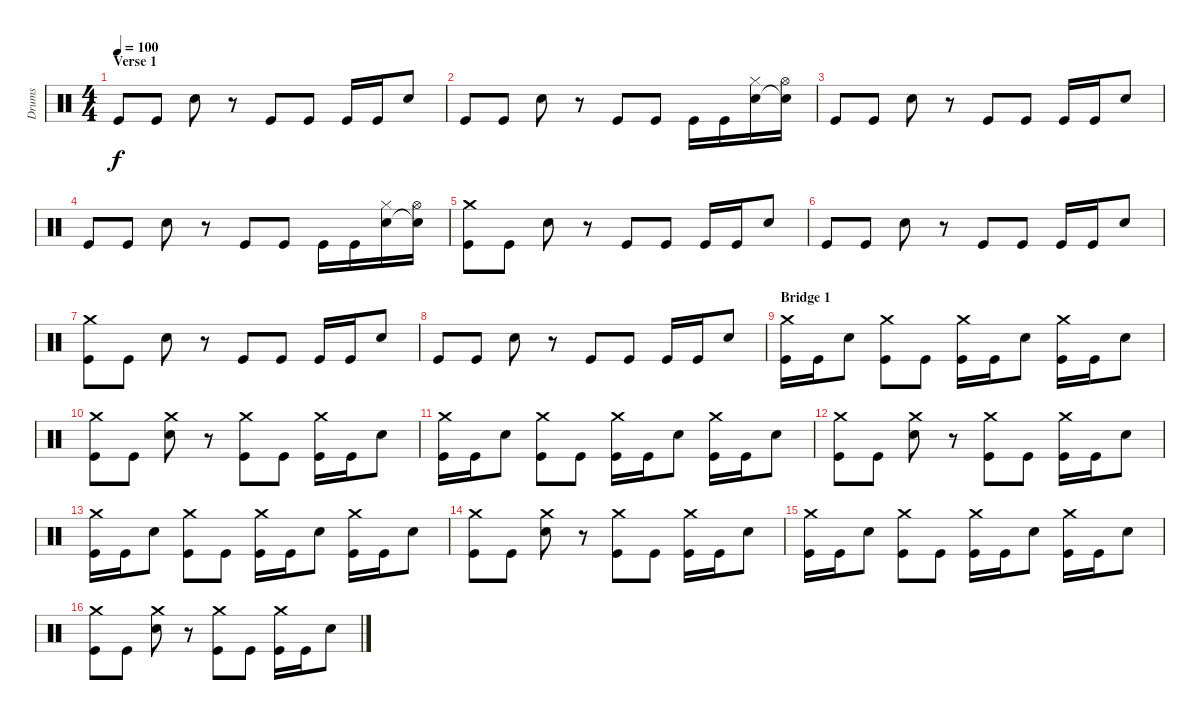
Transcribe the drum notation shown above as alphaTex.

\track ("Drums" "Drums") {instrument percussion}
\staff {score}
\articulation defaults
\ts (4 4)
\section ("" "Verse 1")
\tempo 100
\clef neutral
\ks c "Kick (hit)".8{dy f} "Kick (hit)".8 "Electric Snare (hit)".8
r.8 "Kick (hit)".8 "Kick (hit)".8 "Kick (hit)".16 "Kick (hit)".16 "Electric Snare (hit)".8 |
"Kick (hit)".8 "Kick (hit)".8 "Electric Snare (hit)".8 r.8 "Kick (hit)".8 "Kick (hit)".8 "Kick (hit)".16 "Kick (hit)".16 ("Hi-Hat (closed)" "Electric Snare (hit)").16 ("Hi-Hat (open)" "Snare (hit)"{t}).16 |
"Kick (hit)".8 "Kick (hit)".8 "Electric Snare (hit)".8 r.8 "Kick (hit)".8 "Kick (hit)".8 "Kick (hit)".16 "Kick (hit)".16 "Electric Snare (hit)".8 |
"Kick (hit)".8 "Kick (hit)".8 "Electric Snare (hit)".8 r.8 "Kick (hit)".8 "Kick (hit)".8 "Kick (hit)".16 "Kick (hit)".16 ("Hi-Hat (closed)" "Electric Snare (hit)").16 ("Hi-Hat (open)" "Snare (hit)"{t}).16 |
("Crash medium (hit)" "Kick (hit)").8 "Kick (hit)".8 "Electric Snare (hit)".8 r.8 "Kick (hit)".8 "Kick (hit)".8 "Kick (hit)".16 "Kick (hit)".16 "Electric Snare (hit)".8 |
"Kick (hit)".8 "Kick (hit)".8 "Electric Snare (hit)".8 r.8 "Kick (hit)".8 "Kick (hit)".8 "Kick (hit)".16 "Kick (hit)".16 "Electric Snare (hit)".8 |
("Crash medium (hit)" "Kick (hit)").8 "Kick (hit)".8 "Electric Snare (hit)".8 r.8 "Kick (hit)".8 "Kick (hit)".8 "Kick (hit)".16 "Kick (hit)".16 "Electric Snare (hit)".8 |
"Kick (hit)".8 "Kick (hit)".8 "Electric Snare (hit)".8 r.8 "Kick (hit)".8 "Kick (hit)".8 "Kick (hit)".16 "Kick (hit)".16 "Electric Snare (hit)".8 |
\section ("" "Bridge 1")
("Crash medium (hit)" "Kick (hit)").16 "Kick (hit)".16 "Electric Snare (hit)".8 ("Crash medium (hit)" "Kick (hit)").8 "Kick (hit)".8 ("Crash medium (hit)" "Kick (hit)").16 "Kick (hit)".16 "Electric Snare (hit)".8 ("Crash medium (hit)" "Kick (hit)").16 "Kick (hit)".16 "Electric Snare (hit)".8 |
("Crash medium (hit)" "Kick (hit)").8 "Kick (hit)".8 ("Crash medium (hit)" "Electric Snare (hit)").8 r.8 ("Crash medium (hit)" "Kick (hit)").8 "Kick (hit)".8 ("Crash medium (hit)" "Kick (hit)").16 "Kick (hit)".16 "Electric Snare (hit)".8 |
("Crash medium (hit)" "Kick (hit)").16 "Kick (hit)".16 "Electric Snare (hit)".8 ("Crash medium (hit)" "Kick (hit)").8 "Kick (hit)".8 ("Crash medium (hit)" "Kick (hit)").16 "Kick (hit)".16 "Electric Snare (hit)".8 ("Crash medium (hit)" "Kick (hit)").16 "Kick (hit)".16 "Electric Snare (hit)".8 |
("Crash medium (hit)" "Kick (hit)").8 "Kick (hit)".8 ("Crash medium (hit)" "Electric Snare (hit)").8 r.8 ("Crash medium (hit)" "Kick (hit)").8 "Kick (hit)".8 ("Crash medium (hit)" "Kick (hit)").16 "Kick (hit)".16 "Electric Snare (hit)".8 |
("Crash medium (hit)" "Kick (hit)").16 "Kick (hit)".16 "Electric Snare (hit)".8 ("Crash medium (hit)" "Kick (hit)").8 "Kick (hit)".8 ("Crash medium (hit)" "Kick (hit)").16 "Kick (hit)".16 "Electric Snare (hit)".8 ("Crash medium (hit)" "Kick (hit)").16 "Kick (hit)".16 "Electric Snare (hit)".8 |
("Crash medium (hit)" "Kick (hit)").8 "Kick (hit)".8 ("Crash medium (hit)" "Electric Snare (hit)").8 r.8 ("Crash medium (hit)" "Kick (hit)").8 "Kick (hit)".8 ("Crash medium (hit)" "Kick (hit)").16 "Kick (hit)".16 "Electric Snare (hit)".8 |
("Crash medium (hit)" "Kick (hit)").16 "Kick (hit)".16 "Electric Snare (hit)".8 ("Crash medium (hit)" "Kick (hit)").8 "Kick (hit)".8 ("Crash medium (hit)" "Kick (hit)").16 "Kick (hit)".16 "Electric Snare (hit)".8 ("Crash medium (hit)" "Kick (hit)").16 "Kick (hit)".16 "Electric Snare (hit)".8 |
("Crash medium (hit)" "Kick (hit)").8 "Kick (hit)".8 ("Crash medium (hit)" "Electric Snare (hit)").8 r.8 ("Crash medium (hit)" "Kick (hit)").8 "Kick (hit)".8 ("Crash medium (hit)" "Kick (hit)").16 "Kick (hit)".16 "Electric Snare (hit)".8
